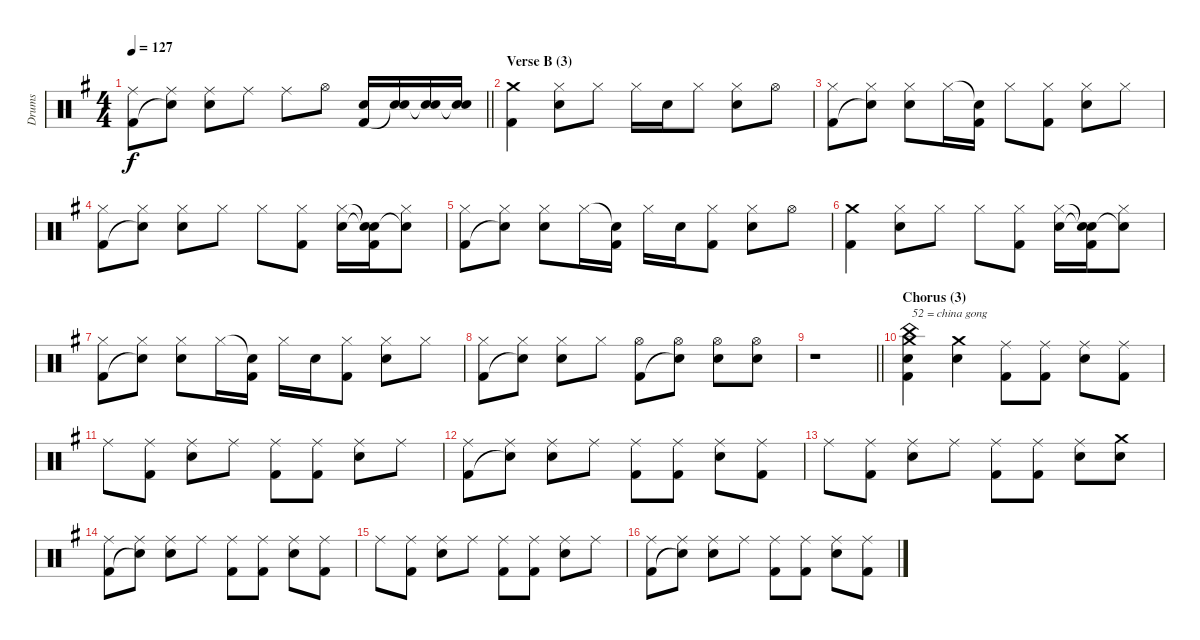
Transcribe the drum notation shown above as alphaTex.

\track ("Drums" "Drums") {instrument percussion}
\staff {score}
\articulation defaults
\ts (4 4)
\tempo 127
\clef neutral
\barLineRight lightlight
\ks eminor
("Ride (middle)" "Kick (hit) 2").8{dy f} ("Ride (middle)" "Snare (hit)"{t}).8 ("Ride (middle)" "Electric Snare (hit)").8 "Ride (middle)".8 "Ride (middle)".8 "Hi-Hat (open)".8 ("Electric Snare (hit)" "Kick (hit) 2").16 ("Electric Snare (hit)" "Snare (hit)"{t}).16 ("Electric Snare (hit)" "Snare (hit)"{t}).16 ("Electric Snare (hit)" "Snare (hit)"{t}).16 |
\section ("" "Verse B (3)")
("Crash medium (hit)" "Kick (hit) 2").4 ("Hi-Hat (closed)" "Electric Snare (hit)").8 "Hi-Hat (closed)".8 "Hi-Hat (closed)".16 "Electric Snare (hit)".16 "Hi-Hat (closed)".8 ("Hi-Hat (closed)" "Electric Snare (hit)").8 "Hi-Hat (open)".8 |
("Hi-Hat (closed)" "Kick (hit) 2").8 ("Hi-Hat (closed)" "Snare (hit)"{t}).8 ("Hi-Hat (closed)" "Electric Snare (hit)").8 "Hi-Hat (closed)".16 ("Snare (hit)"{t} "Kick (hit) 2").16 "Hi-Hat (closed)".8 ("Hi-Hat (closed)" "Kick (hit) 2").8 ("Hi-Hat (closed)" "Electric Snare (hit)").8 "Hi-Hat (closed)".8 |
("Hi-Hat (closed)" "Kick (hit) 2").8 ("Hi-Hat (closed)" "Snare (hit)"{t}).8 ("Hi-Hat (closed)" "Electric Snare (hit)").8 "Hi-Hat (closed)".8 "Hi-Hat (closed)".8 ("Hi-Hat (closed)" "Kick (hit) 2").8 ("Hi-Hat (closed)" "Electric Snare (hit)").16 ("Snare (hit)"{t} "Snare (hit)"{t} "Kick (hit) 2").16 ("Hi-Hat (closed)" "Snare (hit)"{t}).8 |
("Hi-Hat (closed)" "Kick (hit) 2").8 ("Hi-Hat (closed)" "Snare (hit)"{t}).8 ("Hi-Hat (closed)" "Electric Snare (hit)").8 "Hi-Hat (closed)".16 ("Snare (hit)"{t} "Kick (hit) 2").16 "Hi-Hat (closed)".16 "Electric Snare (hit)".16 ("Hi-Hat (closed)" "Kick (hit) 2").8 ("Hi-Hat (closed)" "Electric Snare (hit)").8 "Hi-Hat (open)".8 |
("Crash medium (hit)" "Kick (hit) 2").4 ("Hi-Hat (closed)" "Electric Snare (hit)").8 "Hi-Hat (closed)".8 "Hi-Hat (closed)".8 ("Hi-Hat (closed)" "Kick (hit) 2").8 ("Hi-Hat (closed)" "Electric Snare (hit)").16 ("Snare (hit)"{t} "Snare (hit)"{t} "Kick (hit) 2").16 ("Hi-Hat (closed)" "Snare (hit)"{t}).8 |
("Hi-Hat (closed)" "Kick (hit) 2").8 ("Hi-Hat (closed)" "Snare (hit)"{t}).8 ("Hi-Hat (closed)" "Electric Snare (hit)").8 "Hi-Hat (closed)".16 ("Snare (hit)"{t} "Kick (hit) 2").16 "Hi-Hat (closed)".16 "Electric Snare (hit)".16 ("Hi-Hat (closed)" "Kick (hit) 2").8 ("Hi-Hat (closed)" "Electric Snare (hit)").8 "Hi-Hat (closed)".8 |
("Hi-Hat (closed)" "Kick (hit) 2").8 ("Hi-Hat (closed)" "Snare (hit)"{t}).8 ("Hi-Hat (closed)" "Electric Snare (hit)").8 "Hi-Hat (closed)".8 ("Hi-Hat (open)" "Kick (hit) 2").8 ("Hi-Hat (open)" "Snare (hit)"{t}).8 ("Hi-Hat (open)" "Electric Snare (hit)").8 ("Hi-Hat (open)" "Electric Snare (hit)").8 |
\barLineRight lightlight
r.1 |
\section ("" "Chorus (3)")
("Crash medium (hit)" "China (hit)" "Electric Snare (hit)" "Kick (hit) 2").4{txt "52 = china gong"} ("Crash medium (hit)" "Electric Snare (hit)").4 ("Ride (middle)" "Kick (hit) 2").8 ("Ride (middle)" "Kick (hit) 2").8 ("Ride (middle)" "Electric Snare (hit)").8 ("Ride (middle)" "Kick (hit) 2").8 |
"Ride (middle)".8 ("Ride (middle)" "Kick (hit) 2").8 ("Ride (middle)" "Electric Snare (hit)").8 "Ride (middle)".8 ("Ride (middle)" "Kick (hit) 2").8 ("Ride (middle)" "Kick (hit) 2").8 ("Ride (middle)" "Electric Snare (hit)").8 "Ride (middle)".8 |
("Ride (middle)" "Kick (hit) 2").8 ("Ride (middle)" "Snare (hit)"{t}).8 ("Ride (middle)" "Electric Snare (hit)").8 "Ride (middle)".8 ("Ride (middle)" "Kick (hit) 2").8 ("Ride (middle)" "Kick (hit) 2").8 ("Ride (middle)" "Electric Snare (hit)").8 ("Ride (middle)" "Kick (hit) 2").8 |
"Ride (middle)".8 ("Ride (middle)" "Kick (hit) 2").8 ("Ride (middle)" "Electric Snare (hit)").8 "Ride (middle)".8 ("Ride (middle)" "Kick (hit) 2").8 ("Ride (middle)" "Kick (hit) 2").8 ("Ride (middle)" "Electric Snare (hit)").8 ("Crash medium (hit)" "Electric Snare (hit)").8 |
("Ride (middle)" "Kick (hit) 2").8 ("Ride (middle)" "Snare (hit)"{t}).8 ("Ride (middle)" "Electric Snare (hit)").8 "Ride (middle)".8 ("Ride (middle)" "Kick (hit) 2").8 ("Ride (middle)" "Kick (hit) 2").8 ("Ride (middle)" "Electric Snare (hit)").8 ("Ride (middle)" "Kick (hit) 2").8 |
"Ride (middle)".8 ("Ride (middle)" "Kick (hit) 2").8 ("Ride (middle)" "Electric Snare (hit)").8 "Ride (middle)".8 ("Ride (middle)" "Kick (hit) 2").8 ("Ride (middle)" "Kick (hit) 2").8 ("Ride (middle)" "Electric Snare (hit)").8 "Ride (middle)".8 |
("Ride (middle)" "Kick (hit) 2").8 ("Ride (middle)" "Snare (hit)"{t}).8 ("Ride (middle)" "Electric Snare (hit)").8 "Ride (middle)".8 ("Ride (middle)" "Kick (hit) 2").8 ("Ride (middle)" "Kick (hit) 2").8 ("Ride (middle)" "Electric Snare (hit)").8 ("Ride (middle)" "Kick (hit) 2").8
